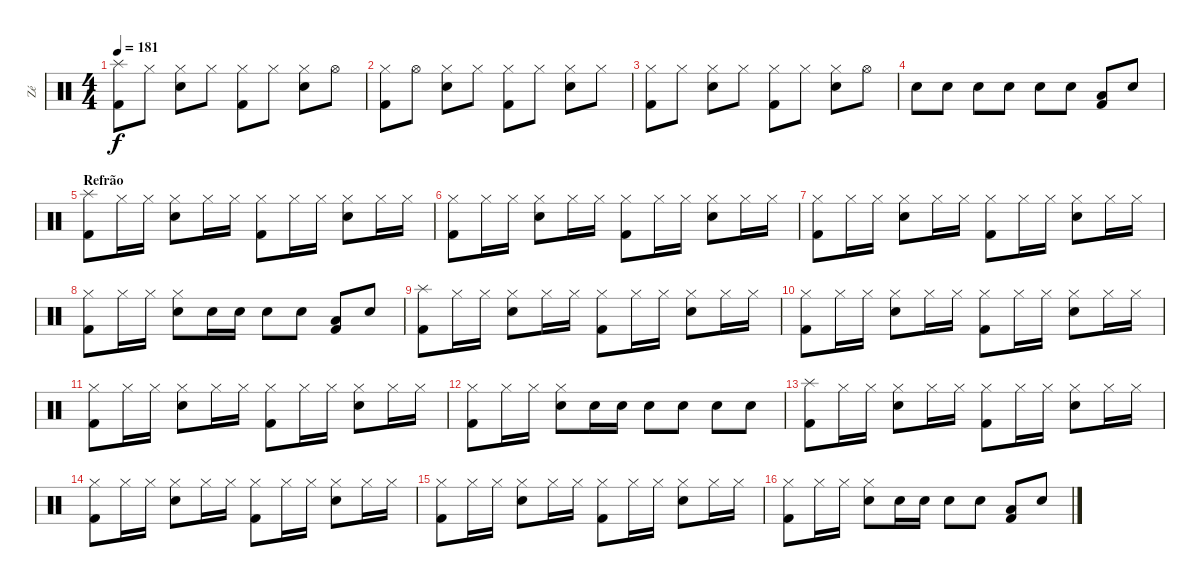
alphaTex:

\track ("Zé" "Zé") {instrument percussion}
\staff {score}
\articulation defaults
\ts (4 4)
\tempo 181
\clef neutral
\ks c
("Splash (hit)" "Kick (hit) 2").8{dy f} "Hi-Hat (closed)".8 ("Hi-Hat (closed)" "Snare (hit) 2").8 "Hi-Hat (closed)".8 ("Hi-Hat (closed)" "Kick (hit) 2").8 "Hi-Hat (closed)".8 ("Hi-Hat (closed)" "Snare (hit) 2").8 "Hi-Hat (open)".8 |
("Hi-Hat (closed)" "Kick (hit) 2").8 "Hi-Hat (open)".8 ("Hi-Hat (closed)" "Snare (hit) 2").8 "Hi-Hat (closed)".8 ("Hi-Hat (closed)" "Kick (hit) 2").8 "Hi-Hat (closed)".8 ("Hi-Hat (closed)" "Snare (hit) 2").8 "Hi-Hat (closed)".8 |
("Hi-Hat (closed)" "Kick (hit) 2").8 "Hi-Hat (closed)".8 ("Hi-Hat (closed)" "Snare (hit) 2").8 "Hi-Hat (closed)".8 ("Hi-Hat (closed)" "Kick (hit) 2").8 "Hi-Hat (closed)".8 ("Hi-Hat (closed)" "Snare (hit) 2").8 "Hi-Hat (open)".8 |
"Snare (hit) 2".8 "Snare (hit) 2".8 "Snare (hit) 2".8 "Snare (hit) 2".8 "Snare (hit) 2".8 "Snare (hit) 2".8 ("Low Tom (hit)" "Kick (hit) 2").8 "Snare (hit) 2".8 |
\section ("" "Refrão")
("Splash (hit)" "Kick (hit) 2").8 "Hi-Hat (closed)".16 "Hi-Hat (closed)".16 ("Hi-Hat (closed)" "Snare (hit) 2").8 "Hi-Hat (closed)".16 "Hi-Hat (closed)".16 ("Hi-Hat (closed)" "Kick (hit) 2").8 "Hi-Hat (closed)".16 "Hi-Hat (closed)".16 ("Hi-Hat (closed)" "Snare (hit) 2").8 "Hi-Hat (closed)".16 "Hi-Hat (closed)".16 |
("Hi-Hat (closed)" "Kick (hit) 2").8 "Hi-Hat (closed)".16 "Hi-Hat (closed)".16 ("Hi-Hat (closed)" "Snare (hit) 2").8 "Hi-Hat (closed)".16 "Hi-Hat (closed)".16 ("Hi-Hat (closed)" "Kick (hit) 2").8 "Hi-Hat (closed)".16 "Hi-Hat (closed)".16 ("Hi-Hat (closed)" "Snare (hit) 2").8 "Hi-Hat (closed)".16 "Hi-Hat (closed)".16 |
("Hi-Hat (closed)" "Kick (hit) 2").8 "Hi-Hat (closed)".16 "Hi-Hat (closed)".16 ("Hi-Hat (closed)" "Snare (hit) 2").8 "Hi-Hat (closed)".16 "Hi-Hat (closed)".16 ("Hi-Hat (closed)" "Kick (hit) 2").8 "Hi-Hat (closed)".16 "Hi-Hat (closed)".16 ("Hi-Hat (closed)" "Snare (hit) 2").8 "Hi-Hat (closed)".16 "Hi-Hat (closed)".16 |
("Hi-Hat (closed)" "Kick (hit) 2").8 "Hi-Hat (closed)".16 "Hi-Hat (closed)".16 ("Hi-Hat (closed)" "Snare (hit) 2").8 "Snare (hit) 2".16 "Snare (hit) 2".16 "Snare (hit) 2".8 "Snare (hit) 2".8 ("Low Tom (hit)" "Kick (hit) 2").8 "Snare (hit) 2".8 |
("Splash (hit)" "Kick (hit) 2").8 "Hi-Hat (closed)".16 "Hi-Hat (closed)".16 ("Hi-Hat (closed)" "Snare (hit) 2").8 "Hi-Hat (closed)".16 "Hi-Hat (closed)".16 ("Hi-Hat (closed)" "Kick (hit) 2").8 "Hi-Hat (closed)".16 "Hi-Hat (closed)".16 ("Hi-Hat (closed)" "Snare (hit) 2").8 "Hi-Hat (closed)".16 "Hi-Hat (closed)".16 |
("Hi-Hat (closed)" "Kick (hit) 2").8 "Hi-Hat (closed)".16 "Hi-Hat (closed)".16 ("Hi-Hat (closed)" "Snare (hit) 2").8 "Hi-Hat (closed)".16 "Hi-Hat (closed)".16 ("Hi-Hat (closed)" "Kick (hit) 2").8 "Hi-Hat (closed)".16 "Hi-Hat (closed)".16 ("Hi-Hat (closed)" "Snare (hit) 2").8 "Hi-Hat (closed)".16 "Hi-Hat (closed)".16 |
("Hi-Hat (closed)" "Kick (hit) 2").8 "Hi-Hat (closed)".16 "Hi-Hat (closed)".16 ("Hi-Hat (closed)" "Snare (hit) 2").8 "Hi-Hat (closed)".16 "Hi-Hat (closed)".16 ("Hi-Hat (closed)" "Kick (hit) 2").8 "Hi-Hat (closed)".16 "Hi-Hat (closed)".16 ("Hi-Hat (closed)" "Snare (hit) 2").8 "Hi-Hat (closed)".16 "Hi-Hat (closed)".16 |
("Hi-Hat (closed)" "Kick (hit) 2").8 "Hi-Hat (closed)".16 "Hi-Hat (closed)".16 ("Hi-Hat (closed)" "Snare (hit) 2").8 "Snare (hit) 2".16 "Snare (hit) 2".16 "Snare (hit) 2".8 "Snare (hit) 2".8 "Snare (hit) 2".8 "Snare (hit) 2".8 |
("Splash (hit)" "Kick (hit) 2").8 "Hi-Hat (closed)".16 "Hi-Hat (closed)".16 ("Hi-Hat (closed)" "Snare (hit) 2").8 "Hi-Hat (closed)".16 "Hi-Hat (closed)".16 ("Hi-Hat (closed)" "Kick (hit) 2").8 "Hi-Hat (closed)".16 "Hi-Hat (closed)".16 ("Hi-Hat (closed)" "Snare (hit) 2").8 "Hi-Hat (closed)".16 "Hi-Hat (closed)".16 |
("Hi-Hat (closed)" "Kick (hit) 2").8 "Hi-Hat (closed)".16 "Hi-Hat (closed)".16 ("Hi-Hat (closed)" "Snare (hit) 2").8 "Hi-Hat (closed)".16 "Hi-Hat (closed)".16 ("Hi-Hat (closed)" "Kick (hit) 2").8 "Hi-Hat (closed)".16 "Hi-Hat (closed)".16 ("Hi-Hat (closed)" "Snare (hit) 2").8 "Hi-Hat (closed)".16 "Hi-Hat (closed)".16 |
("Hi-Hat (closed)" "Kick (hit) 2").8 "Hi-Hat (closed)".16 "Hi-Hat (closed)".16 ("Hi-Hat (closed)" "Snare (hit) 2").8 "Hi-Hat (closed)".16 "Hi-Hat (closed)".16 ("Hi-Hat (closed)" "Kick (hit) 2").8 "Hi-Hat (closed)".16 "Hi-Hat (closed)".16 ("Hi-Hat (closed)" "Snare (hit) 2").8 "Hi-Hat (closed)".16 "Hi-Hat (closed)".16 |
("Hi-Hat (closed)" "Kick (hit) 2").8 "Hi-Hat (closed)".16 "Hi-Hat (closed)".16 ("Hi-Hat (closed)" "Snare (hit) 2").8 "Snare (hit) 2".16 "Snare (hit) 2".16 "Snare (hit) 2".8 "Snare (hit) 2".8 ("Low Tom (hit)" "Kick (hit) 2").8 "Snare (hit) 2".8
